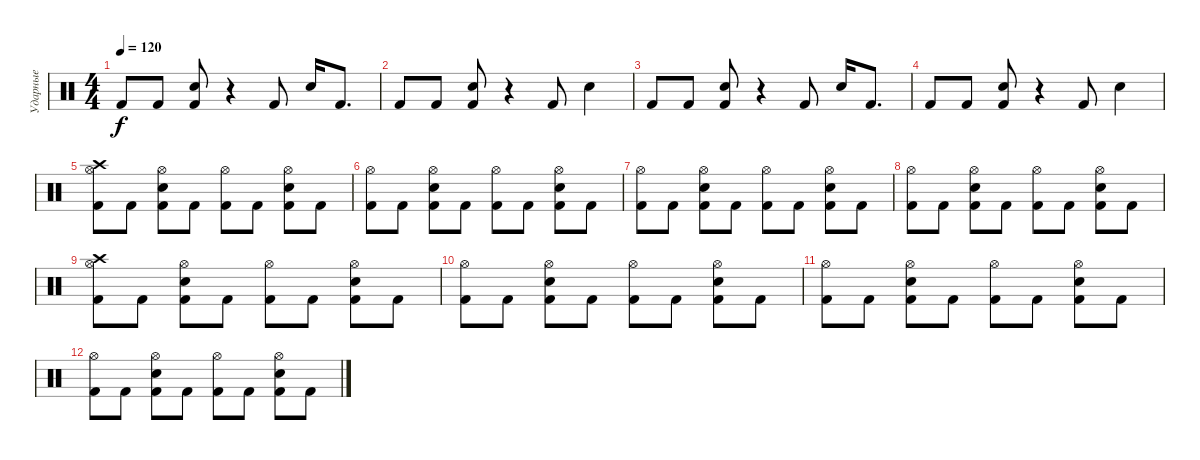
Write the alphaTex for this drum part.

\track ("Ударные" "Ударные") {instrument percussion}
\staff {score}
\articulation defaults
\ts (4 4)
\tempo 120
\clef neutral
\ks c "Kick (hit) 2".8{dy f} "Kick (hit) 2".8
("Electric Snare (hit)" "Kick (hit) 2").8 r.4 "Kick (hit) 2".8 "Electric Snare (hit)".16 "Kick (hit) 2".8{d} |
"Kick (hit) 2".8 "Kick (hit) 2".8 ("Electric Snare (hit)" "Kick (hit) 2").8 r.4 "Kick (hit) 2".8 "Electric Snare (hit)".4 |
"Kick (hit) 2".8 "Kick (hit) 2".8 ("Electric Snare (hit)" "Kick (hit) 2").8 r.4 "Kick (hit) 2".8 "Electric Snare (hit)".16 "Kick (hit) 2".8{d} |
"Kick (hit) 2".8 "Kick (hit) 2".8 ("Electric Snare (hit)" "Kick (hit) 2").8 r.4 "Kick (hit) 2".8 "Electric Snare (hit)".4 |
("Crash high (hit)" "Hi-Hat (open)" "Kick (hit) 2").8 "Kick (hit) 2".8 ("Hi-Hat (open)" "Electric Snare (hit)" "Kick (hit) 2").8 "Kick (hit) 2".8 ("Hi-Hat (open)" "Kick (hit) 2").8 "Kick (hit) 2".8 ("Hi-Hat (open)" "Electric Snare (hit)" "Kick (hit) 2").8 "Kick (hit) 2".8 |
("Hi-Hat (open)" "Kick (hit) 2").8 "Kick (hit) 2".8 ("Hi-Hat (open)" "Electric Snare (hit)" "Kick (hit) 2").8 "Kick (hit) 2".8 ("Hi-Hat (open)" "Kick (hit) 2").8 "Kick (hit) 2".8 ("Hi-Hat (open)" "Electric Snare (hit)" "Kick (hit) 2").8 "Kick (hit) 2".8 |
("Hi-Hat (open)" "Kick (hit) 2").8 "Kick (hit) 2".8 ("Hi-Hat (open)" "Electric Snare (hit)" "Kick (hit) 2").8 "Kick (hit) 2".8 ("Hi-Hat (open)" "Kick (hit) 2").8 "Kick (hit) 2".8 ("Hi-Hat (open)" "Electric Snare (hit)" "Kick (hit) 2").8 "Kick (hit) 2".8 |
("Hi-Hat (open)" "Kick (hit) 2").8 "Kick (hit) 2".8 ("Hi-Hat (open)" "Electric Snare (hit)" "Kick (hit) 2").8 "Kick (hit) 2".8 ("Hi-Hat (open)" "Kick (hit) 2").8 "Kick (hit) 2".8 ("Hi-Hat (open)" "Electric Snare (hit)" "Kick (hit) 2").8 "Kick (hit) 2".8 |
("Crash high (hit)" "Hi-Hat (open)" "Kick (hit) 2").8 "Kick (hit) 2".8 ("Hi-Hat (open)" "Electric Snare (hit)" "Kick (hit) 2").8 "Kick (hit) 2".8 ("Hi-Hat (open)" "Kick (hit) 2").8 "Kick (hit) 2".8 ("Hi-Hat (open)" "Electric Snare (hit)" "Kick (hit) 2").8 "Kick (hit) 2".8 |
("Hi-Hat (open)" "Kick (hit) 2").8 "Kick (hit) 2".8 ("Hi-Hat (open)" "Electric Snare (hit)" "Kick (hit) 2").8 "Kick (hit) 2".8 ("Hi-Hat (open)" "Kick (hit) 2").8 "Kick (hit) 2".8 ("Hi-Hat (open)" "Electric Snare (hit)" "Kick (hit) 2").8 "Kick (hit) 2".8 |
("Hi-Hat (open)" "Kick (hit) 2").8 "Kick (hit) 2".8 ("Hi-Hat (open)" "Electric Snare (hit)" "Kick (hit) 2").8 "Kick (hit) 2".8 ("Hi-Hat (open)" "Kick (hit) 2").8 "Kick (hit) 2".8 ("Hi-Hat (open)" "Electric Snare (hit)" "Kick (hit) 2").8 "Kick (hit) 2".8 |
("Hi-Hat (open)" "Kick (hit) 2").8 "Kick (hit) 2".8 ("Hi-Hat (open)" "Electric Snare (hit)" "Kick (hit) 2").8 "Kick (hit) 2".8 ("Hi-Hat (open)" "Kick (hit) 2").8 "Kick (hit) 2".8 ("Hi-Hat (open)" "Electric Snare (hit)" "Kick (hit) 2").8 "Kick (hit) 2".8
